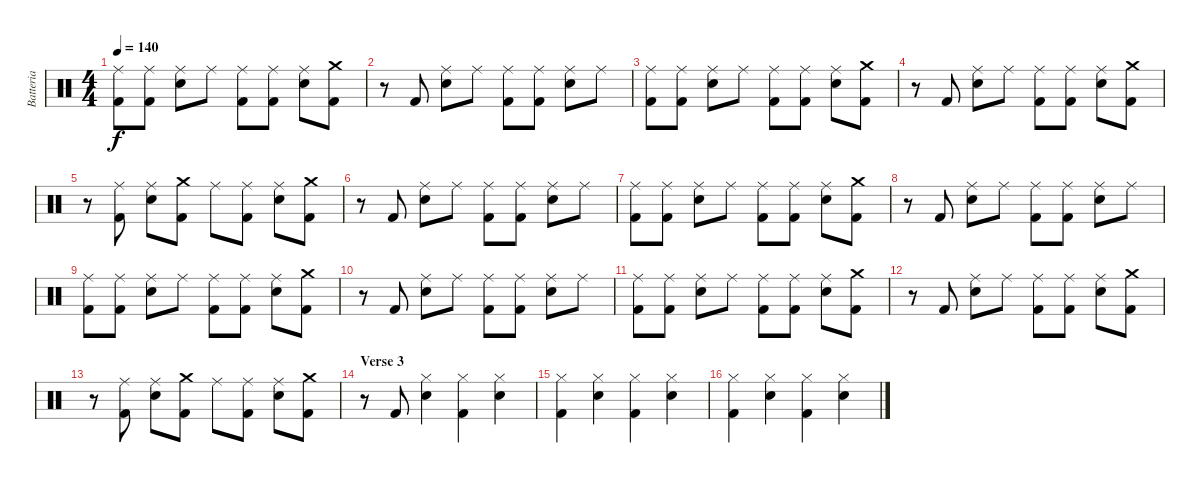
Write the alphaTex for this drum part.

\track ("Batteria" "Batteria") {instrument percussion}
\staff {score}
\articulation defaults
\ts (4 4)
\tempo 140
\clef neutral
\ks c
("Ride (middle)" "Kick (hit) 2").8{dy f} ("Ride (middle)" "Kick (hit) 2").8 ("Ride (middle)" "Snare (hit) 2").8 "Ride (middle)".8 ("Ride (middle)" "Kick (hit) 2").8 ("Ride (middle)" "Kick (hit) 2").8 ("Ride (middle)" "Snare (hit) 2").8 ("Crash medium (hit)" "Kick (hit) 2").8 |
r.8 "Kick (hit) 2".8 ("Ride (middle)" "Snare (hit) 2").8 "Ride (middle)".8 ("Ride (middle)" "Kick (hit) 2").8 ("Ride (middle)" "Kick (hit) 2").8 ("Ride (middle)" "Snare (hit) 2").8 "Ride (middle)".8 |
("Ride (middle)" "Kick (hit) 2").8 ("Ride (middle)" "Kick (hit) 2").8 ("Ride (middle)" "Snare (hit) 2").8 "Ride (middle)".8 ("Ride (middle)" "Kick (hit) 2").8 ("Ride (middle)" "Kick (hit) 2").8 ("Ride (middle)" "Snare (hit) 2").8 ("Crash medium (hit)" "Kick (hit) 2").8 |
r.8 "Kick (hit) 2".8 ("Ride (middle)" "Snare (hit) 2").8 "Ride (middle)".8 ("Ride (middle)" "Kick (hit) 2").8 ("Ride (middle)" "Kick (hit) 2").8 ("Ride (middle)" "Snare (hit) 2").8 ("Crash medium (hit)" "Kick (hit) 2").8 |
r.8 ("Ride (middle)" "Kick (hit) 2").8 ("Ride (middle)" "Snare (hit) 2").8 ("Crash medium (hit)" "Kick (hit) 2").8 "Ride (middle)".8 ("Ride (middle)" "Kick (hit) 2").8 ("Ride (middle)" "Snare (hit) 2").8 ("Crash medium (hit)" "Kick (hit) 2").8 |
r.8 "Kick (hit) 2".8 ("Ride (middle)" "Snare (hit) 2").8 "Ride (middle)".8 ("Ride (middle)" "Kick (hit) 2").8 ("Ride (middle)" "Kick (hit) 2").8 ("Ride (middle)" "Snare (hit) 2").8 "Ride (middle)".8 |
("Ride (middle)" "Kick (hit) 2").8 ("Ride (middle)" "Kick (hit) 2").8 ("Ride (middle)" "Snare (hit) 2").8 "Ride (middle)".8 ("Ride (middle)" "Kick (hit) 2").8 ("Ride (middle)" "Kick (hit) 2").8 ("Ride (middle)" "Snare (hit) 2").8 ("Crash medium (hit)" "Kick (hit) 2").8 |
r.8 "Kick (hit) 2".8 ("Ride (middle)" "Snare (hit) 2").8 "Ride (middle)".8 ("Ride (middle)" "Kick (hit) 2").8 ("Ride (middle)" "Kick (hit) 2").8 ("Ride (middle)" "Snare (hit) 2").8 "Ride (middle)".8 |
("Ride (middle)" "Kick (hit) 2").8 ("Ride (middle)" "Kick (hit) 2").8 ("Ride (middle)" "Snare (hit) 2").8 "Ride (middle)".8 ("Ride (middle)" "Kick (hit) 2").8 ("Ride (middle)" "Kick (hit) 2").8 ("Ride (middle)" "Snare (hit) 2").8 ("Crash medium (hit)" "Kick (hit) 2").8 |
r.8 "Kick (hit) 2".8 ("Ride (middle)" "Snare (hit) 2").8 "Ride (middle)".8 ("Ride (middle)" "Kick (hit) 2").8 ("Ride (middle)" "Kick (hit) 2").8 ("Ride (middle)" "Snare (hit) 2").8 "Ride (middle)".8 |
("Ride (middle)" "Kick (hit) 2").8 ("Ride (middle)" "Kick (hit) 2").8 ("Ride (middle)" "Snare (hit) 2").8 "Ride (middle)".8 ("Ride (middle)" "Kick (hit) 2").8 ("Ride (middle)" "Kick (hit) 2").8 ("Ride (middle)" "Snare (hit) 2").8 ("Crash medium (hit)" "Kick (hit) 2").8 |
r.8 "Kick (hit) 2".8 ("Ride (middle)" "Snare (hit) 2").8 "Ride (middle)".8 ("Ride (middle)" "Kick (hit) 2").8 ("Ride (middle)" "Kick (hit) 2").8 ("Ride (middle)" "Snare (hit) 2").8 ("Crash medium (hit)" "Kick (hit) 2").8 |
r.8 ("Ride (middle)" "Kick (hit) 2").8 ("Ride (middle)" "Snare (hit) 2").8 ("Crash medium (hit)" "Kick (hit) 2").8 "Ride (middle)".8 ("Ride (middle)" "Kick (hit) 2").8 ("Ride (middle)" "Snare (hit) 2").8 ("Crash medium (hit)" "Kick (hit) 2").8 |
\section ("" "Verse 3")
r.8 "Kick (hit) 2".8 ("Hi-Hat (closed)" "Snare (hit) 2").4 ("Hi-Hat (closed)" "Kick (hit) 2").4 ("Hi-Hat (closed)" "Snare (hit) 2").4 |
("Hi-Hat (closed)" "Kick (hit) 2").4 ("Hi-Hat (closed)" "Snare (hit) 2").4 ("Hi-Hat (closed)" "Kick (hit) 2").4 ("Hi-Hat (closed)" "Snare (hit) 2").4 |
("Hi-Hat (closed)" "Kick (hit) 2").4 ("Hi-Hat (closed)" "Snare (hit) 2").4 ("Hi-Hat (closed)" "Kick (hit) 2").4 ("Hi-Hat (closed)" "Snare (hit) 2").4
